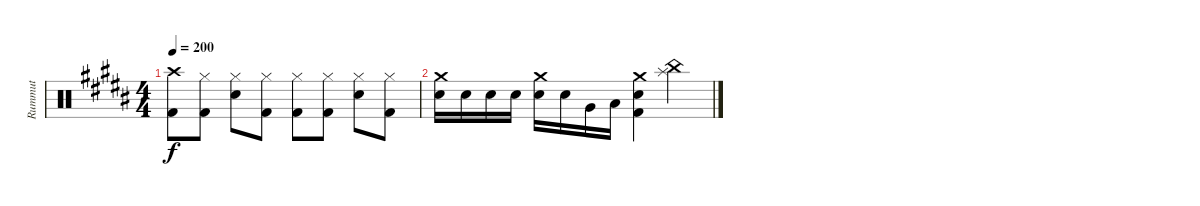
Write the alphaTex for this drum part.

\track ("Rummut" "Rummut") {instrument percussion}
\staff {score}
\articulation defaults
\ts (4 4)
\tempo 200
\clef neutral
\ks b
("Crash high (hit)" "Kick (hit) 2").8{dy f} ("Hi-Hat (closed)" "Kick (hit) 2").8 ("Hi-Hat (closed)" "Electric Snare (hit)").8 ("Hi-Hat (closed)" "Kick (hit) 2").8 ("Hi-Hat (closed)" "Kick (hit) 2").8 ("Hi-Hat (closed)" "Kick (hit) 2").8 ("Hi-Hat (closed)" "Electric Snare (hit)").8 ("Hi-Hat (closed)" "Kick (hit) 2").8 |
("Crash medium (hit)" "Electric Snare (hit)").16 "Electric Snare (hit)".16 "Electric Snare (hit)".16 "Electric Snare (hit)".16 ("Crash medium (hit)" "Electric Snare (hit)").16 "Electric Snare (hit)".16 "Very Low Tom (hit)".16 "Low Floor Tom (hit)".16 ("Crash medium (hit)" "Electric Snare (hit)" "Kick (hit) 2").4 ("China (hit)" "Splash (hit)").4
